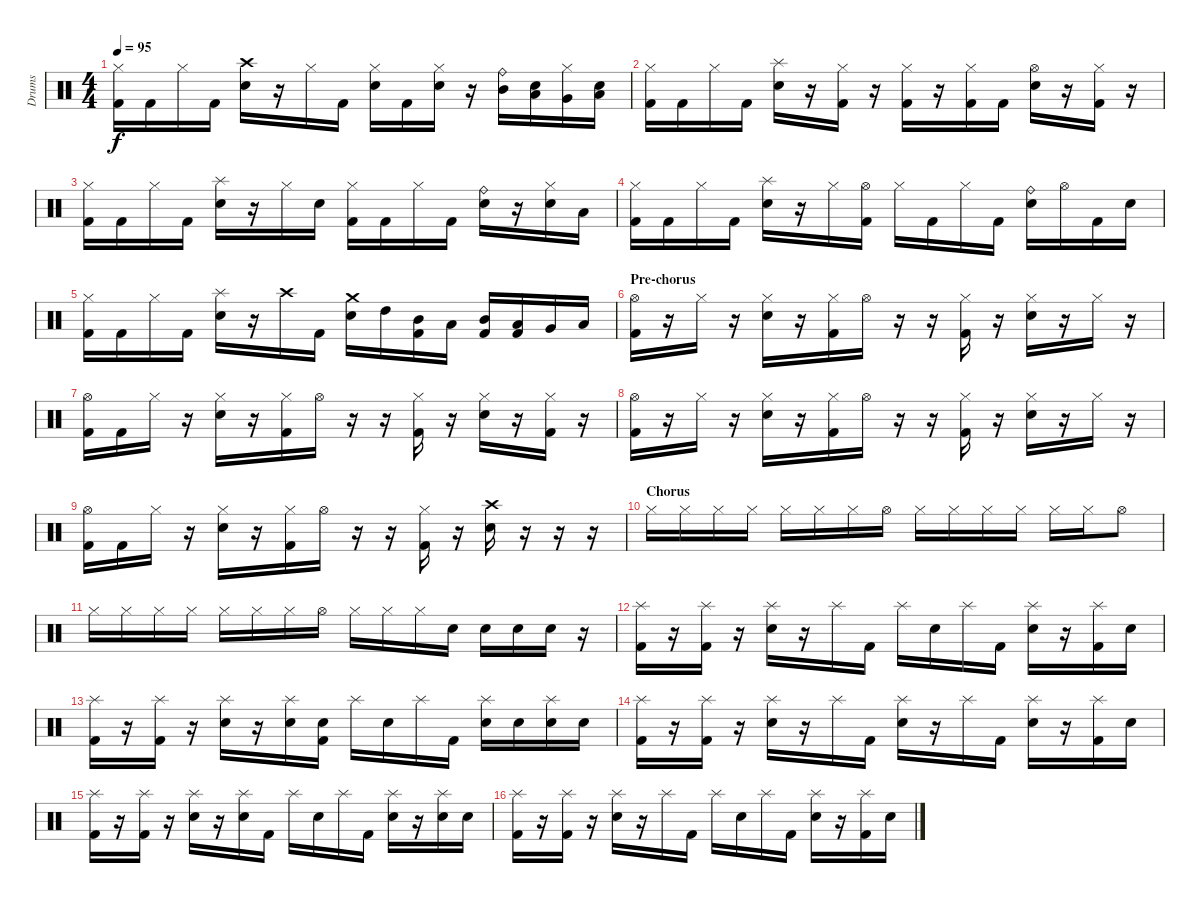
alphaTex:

\track ("Drums" "Drums") {instrument percussion}
\staff {score}
\articulation defaults
\ts (4 4)
\tempo 95
\clef neutral
\ks c
("Hi-Hat (closed)" "Kick (hit) 2").16{dy f} "Kick (hit) 2".16 "Hi-Hat (closed)".16 "Kick (hit) 2".16 ("Electric Snare (hit)" "Crash high (hit)").16 r.16 "Hi-Hat (closed)".16 "Kick (hit) 2".16 ("Hi-Hat (closed)" "Electric Snare (hit)").16 "Kick (hit) 2".16 ("Hi-Hat (closed)" "Electric Snare (hit)"{tr (40 32)}).16 r.16 ("Mid Tom (hit)" "Ride (bell)").16 ("Low Tom (hit)" "Electric Snare (hit)").16 ("Hi-Hat (closed)" "Very Low Tom (hit)").16 ("Low Floor Tom (hit)" "Electric Snare (hit)").16 |
("Hi-Hat (closed)" "Kick (hit) 2").16 "Kick (hit) 2".16 "Hi-Hat (closed)".16 "Kick (hit) 2".16 ("Electric Snare (hit)" "Splash (hit)").16 r.16 ("Hi-Hat (closed)" "Kick (hit) 2").16 r.16 ("Hi-Hat (closed)" "Kick (hit) 2").16 r.16 ("Hi-Hat (closed)" "Kick (hit) 2").16 "Kick (hit) 2".16 ("Hi-Hat (open)" "Electric Snare (hit)").16 r.16 ("Hi-Hat (closed)" "Kick (hit) 2").16 r.16 |
("Hi-Hat (closed)" "Kick (hit) 2").16 "Kick (hit) 2".16 "Hi-Hat (closed)".16 "Kick (hit) 2".16 ("Electric Snare (hit)" "Splash (hit)").16 r.16 "Hi-Hat (closed)".16 "Electric Snare (hit)".16 ("Hi-Hat (closed)" "Kick (hit) 2").16 "Kick (hit) 2".16 "Hi-Hat (closed)".16 "Kick (hit) 2".16 ("Electric Snare (hit)"{tr (40 32)} "Ride (bell)").16 r.16 ("Hi-Hat (closed)" "Electric Snare (hit)").16 "Low Tom (hit)".16 |
("Hi-Hat (closed)" "Kick (hit) 2").16 "Kick (hit) 2".16 "Hi-Hat (closed)".16 "Kick (hit) 2".16 ("Electric Snare (hit)" "Splash (hit)").16 r.16 "Hi-Hat (closed)".16 ("Hi-Hat (open)" "Kick (hit) 2").16 "Hi-Hat (closed)".16 "Kick (hit) 2".16 "Hi-Hat (closed)".16 "Kick (hit) 2".16 ("Electric Snare (hit)" "Ride (bell)").16 "Hi-Hat (open)".16 "Kick (hit) 2".16 "Electric Snare (hit)".16 |
("Hi-Hat (closed)" "Kick (hit) 2").16 "Kick (hit) 2".16 "Hi-Hat (closed)".16 "Kick (hit) 2".16 ("Electric Snare (hit)" "Splash (hit)").16 r.16 "Crash high (hit)".16 "Kick (hit) 2".16 ("Crash medium (hit)" "Electric Snare (hit)").16 "High Tom (hit)".16 ("Mid Tom (hit)" "Kick (hit) 2").16 "Low Tom (hit)".16 ("Mid Tom (hit)" "Kick (hit) 2").16 ("Low Tom (hit)" "Kick (hit) 2").16 "Very Low Tom (hit)".16 "Low Floor Tom (hit)".16 |
\section ("" "Pre-chorus")
("Hi-Hat (open)" "Kick (hit) 2").16 r.16 "Hi-Hat (closed)".16 r.16 ("Hi-Hat (closed)" "Electric Snare (hit)").16 r.16 ("Hi-Hat (closed)" "Kick (hit) 2").16 "Hi-Hat (open)".16 r.16 r.16 ("Hi-Hat (closed)" "Kick (hit) 2").16 r.16 ("Hi-Hat (closed)" "Electric Snare (hit)").16 r.16 "Hi-Hat (closed)".16 r.16 |
("Hi-Hat (open)" "Kick (hit) 2").16 "Kick (hit) 2".16 "Hi-Hat (closed)".16 r.16 ("Hi-Hat (closed)" "Electric Snare (hit)").16 r.16 ("Hi-Hat (closed)" "Kick (hit) 2").16 "Hi-Hat (open)".16 r.16 r.16 ("Hi-Hat (closed)" "Kick (hit) 2").16 r.16 ("Hi-Hat (closed)" "Electric Snare (hit)").16 r.16 ("Hi-Hat (closed)" "Kick (hit) 2").16 r.16 |
("Hi-Hat (open)" "Kick (hit) 2").16 r.16 "Hi-Hat (closed)".16 r.16 ("Hi-Hat (closed)" "Electric Snare (hit)").16 r.16 ("Hi-Hat (closed)" "Kick (hit) 2").16 "Hi-Hat (open)".16 r.16 r.16 ("Hi-Hat (closed)" "Kick (hit) 2").16 r.16 ("Hi-Hat (closed)" "Electric Snare (hit)").16 r.16 "Hi-Hat (closed)".16 r.16 |
("Hi-Hat (open)" "Kick (hit) 2").16 "Kick (hit) 2".16 "Hi-Hat (closed)".16 r.16 ("Hi-Hat (closed)" "Electric Snare (hit)").16 r.16 ("Hi-Hat (closed)" "Kick (hit) 2").16 "Hi-Hat (open)".16 r.16 r.16 ("Hi-Hat (closed)" "Kick (hit) 2").16 r.16 ("Crash high (hit)" "Electric Snare (hit)").16 r.16 r.16 r.16 |
\section ("" "Chorus")
"Hi-Hat (closed)".16 "Hi-Hat (closed)".16 "Hi-Hat (closed)".16 "Hi-Hat (closed)".16 "Hi-Hat (closed)".16 "Hi-Hat (closed)".16 "Hi-Hat (closed)".16 "Hi-Hat (open)".16 "Hi-Hat (closed)".16 "Hi-Hat (closed)".16 "Hi-Hat (closed)".16 "Hi-Hat (closed)".16 "Hi-Hat (closed)".16 "Hi-Hat (closed)".16 "Hi-Hat (open)".8 |
"Hi-Hat (closed)".16 "Hi-Hat (closed)".16 "Hi-Hat (closed)".16 "Hi-Hat (closed)".16 "Hi-Hat (closed)".16 "Hi-Hat (closed)".16 "Hi-Hat (closed)".16 "Hi-Hat (open)".16 "Hi-Hat (closed)".16 "Hi-Hat (closed)".16 "Hi-Hat (closed)".16 "Electric Snare (hit)"{tr (40 64)}.16 "Electric Snare (hit)".16 "Electric Snare (hit)".16 "Electric Snare (hit)".16 r.16 |
("Splash (hit)" "Kick (hit) 2").16 r.16 ("Splash (hit)" "Kick (hit) 2").16 r.16 ("Splash (hit)" "Electric Snare (hit)").16 r.16 "Splash (hit)".16 "Kick (hit) 2".16 "Splash (hit)".16 "Electric Snare (hit)".16 "Splash (hit)".16 "Kick (hit) 2".16 ("Splash (hit)" "Electric Snare (hit)").16 r.16 ("Splash (hit)" "Kick (hit) 2").16 "Electric Snare (hit)".16 |
("Splash (hit)" "Kick (hit) 2").16 r.16 ("Splash (hit)" "Kick (hit) 2").16 r.16 ("Splash (hit)" "Electric Snare (hit)").16 r.16 ("Splash (hit)" "Electric Snare (hit)").16 ("Kick (hit) 2" "Electric Snare (hit)").16 "Splash (hit)".16 "Electric Snare (hit)".16 "Splash (hit)".16 "Kick (hit) 2".16 ("Splash (hit)" "Electric Snare (hit)").16 "Electric Snare (hit)".16 ("Splash (hit)" "Electric Snare (hit)").16 "Electric Snare (hit)".16 |
("Splash (hit)" "Kick (hit) 2").16 r.16 ("Splash (hit)" "Kick (hit) 2").16 r.16 ("Splash (hit)" "Electric Snare (hit)").16 r.16 "Splash (hit)".16 "Kick (hit) 2".16 ("Splash (hit)" "Electric Snare (hit)").16 r.16 "Splash (hit)".16 "Kick (hit) 2".16 ("Splash (hit)" "Electric Snare (hit)").16 r.16 ("Splash (hit)" "Kick (hit) 2").16 "Electric Snare (hit)".16 |
("Splash (hit)" "Kick (hit) 2").16 r.16 ("Splash (hit)" "Kick (hit) 2").16 r.16 ("Splash (hit)" "Electric Snare (hit)").16 r.16 ("Splash (hit)" "Electric Snare (hit)").16 "Kick (hit) 2".16 "Splash (hit)".16 "Electric Snare (hit)".16 "Splash (hit)".16 "Kick (hit) 2".16 ("Splash (hit)" "Electric Snare (hit)").16 r.16 ("Splash (hit)" "Electric Snare (hit)").16 "Electric Snare (hit)".16 |
("Splash (hit)" "Kick (hit) 2").16 r.16 ("Splash (hit)" "Kick (hit) 2").16 r.16 ("Splash (hit)" "Electric Snare (hit)").16 r.16 "Splash (hit)".16 "Kick (hit) 2".16 "Splash (hit)".16 "Electric Snare (hit)".16 "Splash (hit)".16 "Kick (hit) 2".16 ("Splash (hit)" "Electric Snare (hit)").16 r.16 ("Splash (hit)" "Kick (hit) 2").16 "Electric Snare (hit)".16
